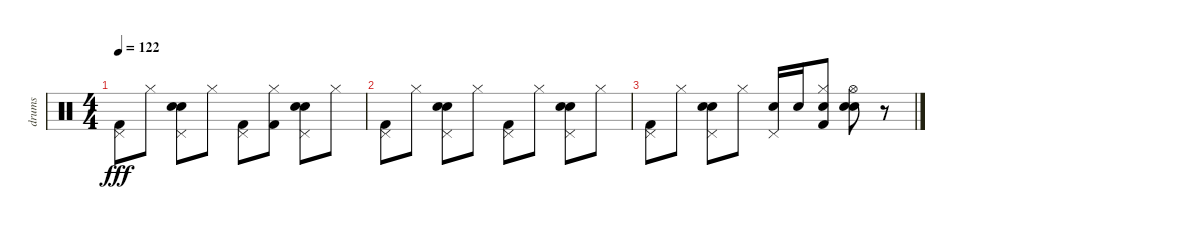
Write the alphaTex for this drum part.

\track ("drums" "drums") {instrument percussion}
\staff {score}
\articulation defaults
\ts (4 4)
\tempo 122
\clef neutral
\ks c
("Pedal Hi-Hat (hit)" "Kick (hit) 2").8{dy fff} "Hi-Hat (closed)".8 ("Hand Clap (hit)" "Pedal Hi-Hat (hit)" "Snare (hit) 2").8 "Hi-Hat (closed)".8 ("Pedal Hi-Hat (hit)" "Kick (hit) 2").8 ("Hi-Hat (closed)" "Kick (hit) 2").8 ("Hand Clap (hit)" "Pedal Hi-Hat (hit)" "Snare (hit) 2").8 "Hi-Hat (closed)".8 |
("Pedal Hi-Hat (hit)" "Kick (hit) 2").8 "Hi-Hat (closed)".8 ("Hand Clap (hit)" "Pedal Hi-Hat (hit)" "Snare (hit) 2").8 "Hi-Hat (closed)".8 ("Pedal Hi-Hat (hit)" "Kick (hit) 2").8 "Hi-Hat (closed)".8 ("Hand Clap (hit)" "Pedal Hi-Hat (hit)" "Snare (hit) 2").8 "Hi-Hat (closed)".8 |
("Kick (hit) 2" "Pedal Hi-Hat (hit)").8 "Hi-Hat (closed)".8 ("Hand Clap (hit)" "Pedal Hi-Hat (hit)" "Snare (hit) 2").8 "Hi-Hat (closed)".8 ("Snare (hit) 2" "Pedal Hi-Hat (hit)").16 "Snare (hit) 2".16 ("Kick (hit) 2" "Snare (hit) 2" "Hi-Hat (closed)").8 ("Hand Clap (hit)" "Hi-Hat (open)" "Snare (hit) 2").8 r.8
